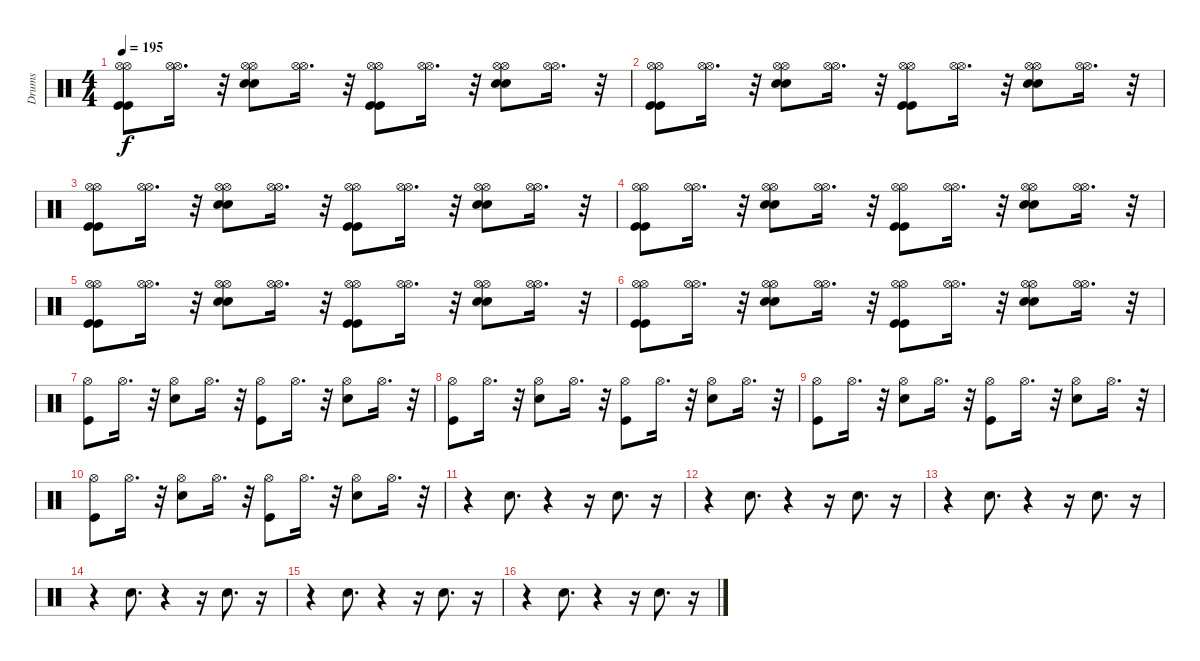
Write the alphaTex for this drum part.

\track ("Drums" "Drums") {instrument percussion}
\staff {score}
\articulation defaults
\ts (4 4)
\tempo 195
\clef neutral
\ks c
("Kick (hit)" "Hi-Hat (open)" "Hi-Hat (open)" "Kick (hit)").8{dy f} ("Hi-Hat (open)" "Hi-Hat (open)").16{d} r.32 ("Hi-Hat (open)" "Electric Snare (hit)" "Electric Snare (hit)" "Hi-Hat (open)").8 ("Hi-Hat (open)" "Hi-Hat (open)").16{d} r.32 ("Hi-Hat (open)" "Kick (hit)" "Kick (hit)" "Hi-Hat (open)").8 ("Hi-Hat (open)" "Hi-Hat (open)").16{d} r.32 ("Electric Snare (hit)" "Electric Snare (hit)" "Hi-Hat (open)" "Hi-Hat (open)").8 ("Hi-Hat (open)" "Hi-Hat (open)").16{d} r.32 |
("Kick (hit)" "Hi-Hat (open)" "Hi-Hat (open)" "Kick (hit)").8 ("Hi-Hat (open)" "Hi-Hat (open)").16{d} r.32 ("Hi-Hat (open)" "Electric Snare (hit)" "Hi-Hat (open)" "Electric Snare (hit)").8 ("Hi-Hat (open)" "Hi-Hat (open)").16{d} r.32 ("Hi-Hat (open)" "Kick (hit)" "Kick (hit)" "Hi-Hat (open)").8 ("Hi-Hat (open)" "Hi-Hat (open)").16{d} r.32 ("Hi-Hat (open)" "Electric Snare (hit)" "Electric Snare (hit)" "Hi-Hat (open)").8 ("Hi-Hat (open)" "Hi-Hat (open)").16{d} r.32 |
("Hi-Hat (open)" "Kick (hit)" "Hi-Hat (open)" "Kick (hit)").8 ("Hi-Hat (open)" "Hi-Hat (open)").16{d} r.32 ("Electric Snare (hit)" "Electric Snare (hit)" "Hi-Hat (open)" "Hi-Hat (open)").8 ("Hi-Hat (open)" "Hi-Hat (open)").16{d} r.32 ("Hi-Hat (open)" "Kick (hit)" "Hi-Hat (open)" "Kick (hit)").8 ("Hi-Hat (open)" "Hi-Hat (open)").16{d} r.32 ("Hi-Hat (open)" "Electric Snare (hit)" "Electric Snare (hit)" "Hi-Hat (open)").8 ("Hi-Hat (open)" "Hi-Hat (open)").16{d} r.32 |
("Kick (hit)" "Hi-Hat (open)" "Hi-Hat (open)" "Kick (hit)").8 ("Hi-Hat (open)" "Hi-Hat (open)").16{d} r.32 ("Hi-Hat (open)" "Electric Snare (hit)" "Hi-Hat (open)" "Electric Snare (hit)").8 ("Hi-Hat (open)" "Hi-Hat (open)").16{d} r.32 ("Kick (hit)" "Hi-Hat (open)" "Hi-Hat (open)" "Kick (hit)").8 ("Hi-Hat (open)" "Hi-Hat (open)").16{d} r.32 ("Electric Snare (hit)" "Hi-Hat (open)" "Electric Snare (hit)" "Hi-Hat (open)").8 ("Hi-Hat (open)" "Hi-Hat (open)").16{d} r.32 |
("Hi-Hat (open)" "Kick (hit)" "Hi-Hat (open)" "Kick (hit)").8 ("Hi-Hat (open)" "Hi-Hat (open)").16{d} r.32 ("Electric Snare (hit)" "Hi-Hat (open)" "Electric Snare (hit)" "Hi-Hat (open)").8 ("Hi-Hat (open)" "Hi-Hat (open)").16{d} r.32 ("Hi-Hat (open)" "Kick (hit)" "Hi-Hat (open)" "Kick (hit)").8 ("Hi-Hat (open)" "Hi-Hat (open)").16{d} r.32 ("Hi-Hat (open)" "Electric Snare (hit)" "Electric Snare (hit)" "Hi-Hat (open)").8 ("Hi-Hat (open)" "Hi-Hat (open)").16{d} r.32 |
("Kick (hit)" "Hi-Hat (open)" "Hi-Hat (open)" "Kick (hit)").8 ("Hi-Hat (open)" "Hi-Hat (open)").16{d} r.32 ("Hi-Hat (open)" "Electric Snare (hit)" "Electric Snare (hit)" "Hi-Hat (open)").8 ("Hi-Hat (open)" "Hi-Hat (open)").16{d} r.32 ("Kick (hit)" "Hi-Hat (open)" "Hi-Hat (open)" "Kick (hit)").8 ("Hi-Hat (open)" "Hi-Hat (open)").16{d} r.32 ("Hi-Hat (open)" "Electric Snare (hit)" "Electric Snare (hit)" "Hi-Hat (open)").8 ("Hi-Hat (open)" "Hi-Hat (open)").16{d} r.32 |
("Hi-Hat (open)" "Kick (hit)").8 "Hi-Hat (open)".16{d} r.32 ("Hi-Hat (open)" "Electric Snare (hit)").8 "Hi-Hat (open)".16{d} r.32 ("Hi-Hat (open)" "Kick (hit)").8 "Hi-Hat (open)".16{d} r.32 ("Hi-Hat (open)" "Electric Snare (hit)").8 "Hi-Hat (open)".16{d} r.32 |
("Kick (hit)" "Hi-Hat (open)").8 "Hi-Hat (open)".16{d} r.32 ("Electric Snare (hit)" "Hi-Hat (open)").8 "Hi-Hat (open)".16{d} r.32 ("Hi-Hat (open)" "Kick (hit)").8 "Hi-Hat (open)".16{d} r.32 ("Hi-Hat (open)" "Electric Snare (hit)").8 "Hi-Hat (open)".16{d} r.32 |
("Hi-Hat (open)" "Kick (hit)").8 "Hi-Hat (open)".16{d} r.32 ("Electric Snare (hit)" "Hi-Hat (open)").8 "Hi-Hat (open)".16{d} r.32 ("Kick (hit)" "Hi-Hat (open)").8 "Hi-Hat (open)".16{d} r.32 ("Electric Snare (hit)" "Hi-Hat (open)").8 "Hi-Hat (open)".16{d} r.32 |
("Kick (hit)" "Hi-Hat (open)").8 "Hi-Hat (open)".16{d} r.32 ("Hi-Hat (open)" "Electric Snare (hit)").8 "Hi-Hat (open)".16{d} r.32 ("Kick (hit)" "Hi-Hat (open)").8 "Hi-Hat (open)".16{d} r.32 ("Electric Snare (hit)" "Hi-Hat (open)").8 "Hi-Hat (open)".16{d} r.32 |
r.4 "Electric Snare (hit)".8{d} r.4 r.16 "Electric Snare (hit)".8{d} r.16 |
r.4 "Electric Snare (hit)".8{d} r.4 r.16 "Electric Snare (hit)".8{d} r.16 |
r.4 "Electric Snare (hit)".8{d} r.4 r.16 "Electric Snare (hit)".8{d} r.16 |
r.4 "Electric Snare (hit)".8{d} r.4 r.16 "Electric Snare (hit)".8{d} r.16 |
r.4 "Electric Snare (hit)".8{d} r.4 r.16 "Electric Snare (hit)".8{d} r.16 |
r.4 "Electric Snare (hit)".8{d} r.4 r.16 "Electric Snare (hit)".8{d} r.16
